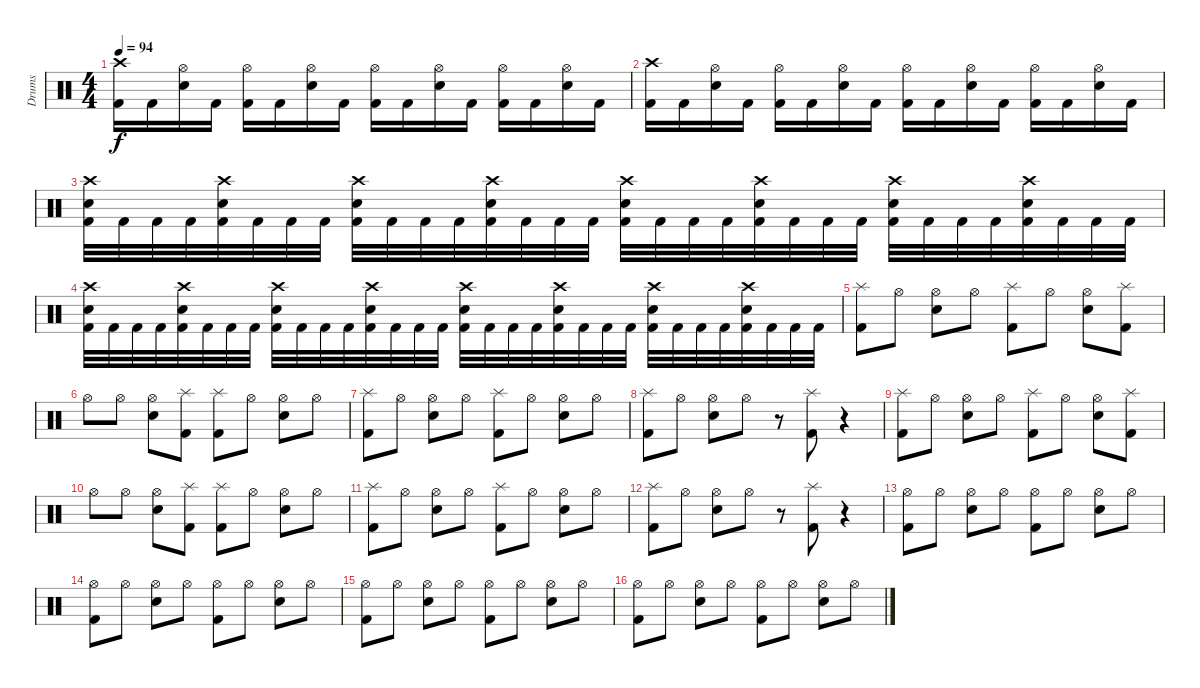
\track ("Drums" "Drums") {instrument percussion}
\staff {score}
\articulation defaults
\ts (4 4)
\tempo 94
\clef neutral
\ks c
("Crash high (hit)" "Kick (hit) 2").16{dy f} "Kick (hit) 2".16 ("Hi-Hat (open)" "Electric Snare (hit)").16 "Kick (hit) 2".16 ("Hi-Hat (open)" "Kick (hit) 2").16 "Kick (hit) 2".16 ("Hi-Hat (open)" "Electric Snare (hit)").16 "Kick (hit) 2".16 ("Hi-Hat (open)" "Kick (hit) 2").16 "Kick (hit) 2".16 ("Hi-Hat (open)" "Electric Snare (hit)").16 "Kick (hit) 2".16 ("Hi-Hat (open)" "Kick (hit) 2").16 "Kick (hit) 2".16 ("Hi-Hat (open)" "Electric Snare (hit)").16 "Kick (hit) 2".16 |
("Crash high (hit)" "Kick (hit) 2").16 "Kick (hit) 2".16 ("Hi-Hat (open)" "Electric Snare (hit)").16 "Kick (hit) 2".16 ("Hi-Hat (open)" "Kick (hit) 2").16 "Kick (hit) 2".16 ("Hi-Hat (open)" "Electric Snare (hit)").16 "Kick (hit) 2".16 ("Hi-Hat (open)" "Kick (hit) 2").16 "Kick (hit) 2".16 ("Hi-Hat (open)" "Electric Snare (hit)").16 "Kick (hit) 2".16 ("Hi-Hat (open)" "Kick (hit) 2").16 "Kick (hit) 2".16 ("Hi-Hat (open)" "Electric Snare (hit)").16 "Kick (hit) 2".16 |
("Crash high (hit)" "Electric Snare (hit)" "Kick (hit) 2").32 "Kick (hit) 2".32 "Kick (hit) 2".32 "Kick (hit) 2".32 ("Crash high (hit)" "Electric Snare (hit)" "Kick (hit) 2").32 "Kick (hit) 2".32 "Kick (hit) 2".32 "Kick (hit) 2".32 ("Crash high (hit)" "Electric Snare (hit)" "Kick (hit) 2").32 "Kick (hit) 2".32 "Kick (hit) 2".32 "Kick (hit) 2".32 ("Crash high (hit)" "Electric Snare (hit)" "Kick (hit) 2").32 "Kick (hit) 2".32 "Kick (hit) 2".32 "Kick (hit) 2".32 ("Crash high (hit)" "Electric Snare (hit)" "Kick (hit) 2").32 "Kick (hit) 2".32 "Kick (hit) 2".32 "Kick (hit) 2".32 ("Crash high (hit)" "Electric Snare (hit)" "Kick (hit) 2").32 "Kick (hit) 2".32 "Kick (hit) 2".32 "Kick (hit) 2".32 ("Crash high (hit)" "Electric Snare (hit)" "Kick (hit) 2").32 "Kick (hit) 2".32 "Kick (hit) 2".32 "Kick (hit) 2".32 ("Crash high (hit)" "Electric Snare (hit)" "Kick (hit) 2").32 "Kick (hit) 2".32 "Kick (hit) 2".32 "Kick (hit) 2".32 |
("Crash high (hit)" "Electric Snare (hit)" "Kick (hit) 2").32 "Kick (hit) 2".32 "Kick (hit) 2".32 "Kick (hit) 2".32 ("Crash high (hit)" "Electric Snare (hit)" "Kick (hit) 2").32 "Kick (hit) 2".32 "Kick (hit) 2".32 "Kick (hit) 2".32 ("Crash high (hit)" "Electric Snare (hit)" "Kick (hit) 2").32 "Kick (hit) 2".32 "Kick (hit) 2".32 "Kick (hit) 2".32 ("Crash high (hit)" "Electric Snare (hit)" "Kick (hit) 2").32 "Kick (hit) 2".32 "Kick (hit) 2".32 "Kick (hit) 2".32 ("Crash high (hit)" "Electric Snare (hit)" "Kick (hit) 2").32 "Kick (hit) 2".32 "Kick (hit) 2".32 "Kick (hit) 2".32 ("Crash high (hit)" "Electric Snare (hit)" "Kick (hit) 2").32 "Kick (hit) 2".32 "Kick (hit) 2".32 "Kick (hit) 2".32 ("Crash high (hit)" "Electric Snare (hit)" "Kick (hit) 2").32 "Kick (hit) 2".32 "Kick (hit) 2".32 "Kick (hit) 2".32 ("Crash high (hit)" "Electric Snare (hit)" "Kick (hit) 2").32 "Kick (hit) 2".32 "Kick (hit) 2".32 "Kick (hit) 2".32 |
("Splash (hit)" "Kick (hit) 2").8 "Hi-Hat (open)".8 ("Hi-Hat (open)" "Electric Snare (hit)").8 "Hi-Hat (open)".8 ("Splash (hit)" "Kick (hit) 2").8 "Hi-Hat (open)".8 ("Hi-Hat (open)" "Electric Snare (hit)").8 ("Splash (hit)" "Kick (hit) 2").8 |
"Hi-Hat (open)".8 "Hi-Hat (open)".8 ("Hi-Hat (open)" "Electric Snare (hit)").8 ("Splash (hit)" "Kick (hit) 2").8 ("Splash (hit)" "Kick (hit) 2").8 "Hi-Hat (open)".8 ("Hi-Hat (open)" "Electric Snare (hit)").8 "Hi-Hat (open)".8 |
("Splash (hit)" "Kick (hit) 2").8 "Hi-Hat (open)".8 ("Hi-Hat (open)" "Electric Snare (hit)").8 "Hi-Hat (open)".8 ("Splash (hit)" "Kick (hit) 2").8 "Hi-Hat (open)".8 ("Hi-Hat (open)" "Electric Snare (hit)").8 "Hi-Hat (open)".8 |
("Splash (hit)" "Kick (hit) 2").8 "Hi-Hat (open)".8 ("Hi-Hat (open)" "Electric Snare (hit)").8 "Hi-Hat (open)".8 r.8 ("Splash (hit)" "Kick (hit) 2").8 r.4 |
("Splash (hit)" "Kick (hit) 2").8 "Hi-Hat (open)".8 ("Hi-Hat (open)" "Electric Snare (hit)").8 "Hi-Hat (open)".8 ("Splash (hit)" "Kick (hit) 2").8 "Hi-Hat (open)".8 ("Hi-Hat (open)" "Electric Snare (hit)").8 ("Splash (hit)" "Kick (hit) 2").8 |
"Hi-Hat (open)".8 "Hi-Hat (open)".8 ("Hi-Hat (open)" "Electric Snare (hit)").8 ("Splash (hit)" "Kick (hit) 2").8 ("Splash (hit)" "Kick (hit) 2").8 "Hi-Hat (open)".8 ("Hi-Hat (open)" "Electric Snare (hit)").8 "Hi-Hat (open)".8 |
("Splash (hit)" "Kick (hit) 2").8 "Hi-Hat (open)".8 ("Hi-Hat (open)" "Electric Snare (hit)").8 "Hi-Hat (open)".8 ("Splash (hit)" "Kick (hit) 2").8 "Hi-Hat (open)".8 ("Hi-Hat (open)" "Electric Snare (hit)").8 "Hi-Hat (open)".8 |
("Splash (hit)" "Kick (hit) 2").8 "Hi-Hat (open)".8 ("Hi-Hat (open)" "Electric Snare (hit)").8 "Hi-Hat (open)".8 r.8 ("Splash (hit)" "Kick (hit) 2").8 r.4 |
("Hi-Hat (open)" "Kick (hit) 2").8 "Hi-Hat (open)".8 ("Hi-Hat (open)" "Electric Snare (hit)").8 "Hi-Hat (open)".8 ("Hi-Hat (open)" "Kick (hit) 2").8 "Hi-Hat (open)".8 ("Hi-Hat (open)" "Electric Snare (hit)").8 "Hi-Hat (open)".8 |
("Hi-Hat (open)" "Kick (hit) 2").8 "Hi-Hat (open)".8 ("Hi-Hat (open)" "Electric Snare (hit)").8 "Hi-Hat (open)".8 ("Hi-Hat (open)" "Kick (hit) 2").8 "Hi-Hat (open)".8 ("Hi-Hat (open)" "Electric Snare (hit)").8 "Hi-Hat (open)".8 |
("Hi-Hat (open)" "Kick (hit) 2").8 "Hi-Hat (open)".8 ("Hi-Hat (open)" "Electric Snare (hit)").8 "Hi-Hat (open)".8 ("Hi-Hat (open)" "Kick (hit) 2").8 "Hi-Hat (open)".8 ("Hi-Hat (open)" "Electric Snare (hit)").8 "Hi-Hat (open)".8 |
("Hi-Hat (open)" "Kick (hit) 2").8 "Hi-Hat (open)".8 ("Hi-Hat (open)" "Electric Snare (hit)").8 "Hi-Hat (open)".8 ("Hi-Hat (open)" "Kick (hit) 2").8 "Hi-Hat (open)".8 ("Hi-Hat (open)" "Electric Snare (hit)").8 "Hi-Hat (open)".8
